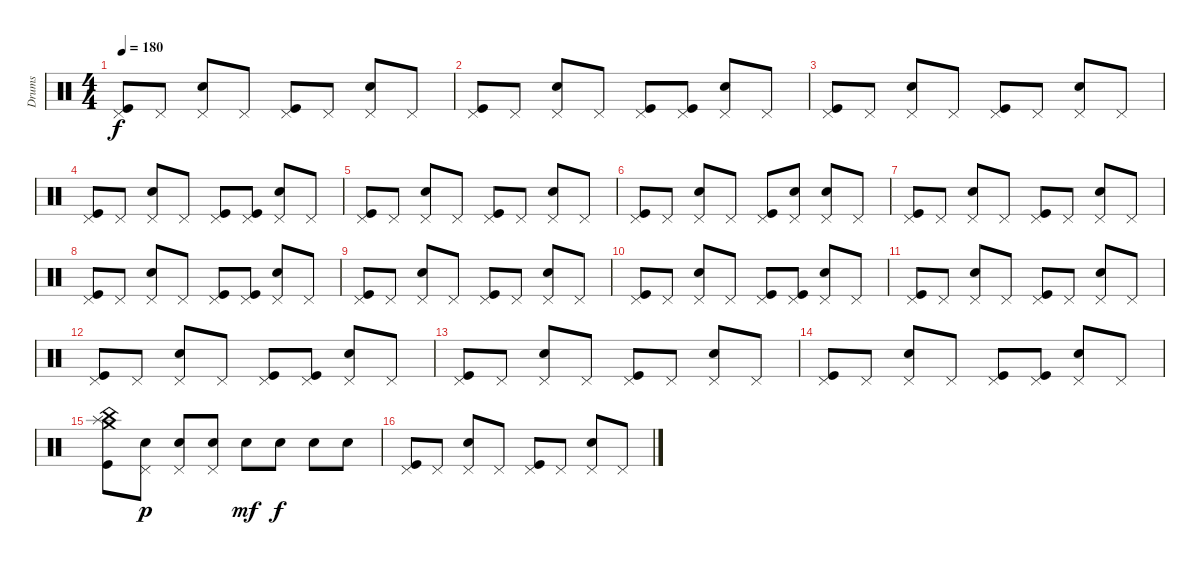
\track ("Drums" "Drums") {instrument percussion}
\staff {score}
\articulation defaults
\ts (4 4)
\tempo 180
\clef neutral
\ks c
("Pedal Hi-Hat (hit)" "Kick (hit)").8{dy f} "Pedal Hi-Hat (hit)".8 ("Pedal Hi-Hat (hit)" "Snare (hit) 2").8 "Pedal Hi-Hat (hit)".8 ("Pedal Hi-Hat (hit)" "Kick (hit)").8 "Pedal Hi-Hat (hit)".8 ("Pedal Hi-Hat (hit)" "Snare (hit) 2").8 "Pedal Hi-Hat (hit)".8 |
("Pedal Hi-Hat (hit)" "Kick (hit)").8 "Pedal Hi-Hat (hit)".8 ("Pedal Hi-Hat (hit)" "Snare (hit) 2").8 "Pedal Hi-Hat (hit)".8 ("Pedal Hi-Hat (hit)" "Kick (hit)").8 ("Pedal Hi-Hat (hit)" "Kick (hit)").8 ("Pedal Hi-Hat (hit)" "Snare (hit) 2").8 "Pedal Hi-Hat (hit)".8 |
("Pedal Hi-Hat (hit)" "Kick (hit)").8 "Pedal Hi-Hat (hit)".8 ("Pedal Hi-Hat (hit)" "Snare (hit) 2").8 "Pedal Hi-Hat (hit)".8 ("Pedal Hi-Hat (hit)" "Kick (hit)").8 "Pedal Hi-Hat (hit)".8 ("Pedal Hi-Hat (hit)" "Snare (hit) 2").8 "Pedal Hi-Hat (hit)".8 |
("Pedal Hi-Hat (hit)" "Kick (hit)").8 "Pedal Hi-Hat (hit)".8 ("Pedal Hi-Hat (hit)" "Snare (hit) 2").8 "Pedal Hi-Hat (hit)".8 ("Pedal Hi-Hat (hit)" "Kick (hit)").8 ("Pedal Hi-Hat (hit)" "Kick (hit)").8 ("Pedal Hi-Hat (hit)" "Snare (hit) 2").8 "Pedal Hi-Hat (hit)".8 |
("Pedal Hi-Hat (hit)" "Kick (hit)").8 "Pedal Hi-Hat (hit)".8 ("Pedal Hi-Hat (hit)" "Snare (hit) 2").8 "Pedal Hi-Hat (hit)".8 ("Pedal Hi-Hat (hit)" "Kick (hit)").8 "Pedal Hi-Hat (hit)".8 ("Pedal Hi-Hat (hit)" "Snare (hit) 2").8 "Pedal Hi-Hat (hit)".8 |
("Pedal Hi-Hat (hit)" "Kick (hit)").8 "Pedal Hi-Hat (hit)".8 ("Pedal Hi-Hat (hit)" "Snare (hit) 2").8 "Pedal Hi-Hat (hit)".8 ("Pedal Hi-Hat (hit)" "Kick (hit)").8 ("Pedal Hi-Hat (hit)" "Snare (hit) 2").8 ("Pedal Hi-Hat (hit)" "Snare (hit) 2").8 "Pedal Hi-Hat (hit)".8 |
("Pedal Hi-Hat (hit)" "Kick (hit)").8 "Pedal Hi-Hat (hit)".8 ("Pedal Hi-Hat (hit)" "Snare (hit) 2").8 "Pedal Hi-Hat (hit)".8 ("Pedal Hi-Hat (hit)" "Kick (hit)").8 "Pedal Hi-Hat (hit)".8 ("Pedal Hi-Hat (hit)" "Snare (hit) 2").8 "Pedal Hi-Hat (hit)".8 |
("Pedal Hi-Hat (hit)" "Kick (hit)").8 "Pedal Hi-Hat (hit)".8 ("Pedal Hi-Hat (hit)" "Snare (hit) 2").8 "Pedal Hi-Hat (hit)".8 ("Pedal Hi-Hat (hit)" "Kick (hit)").8 ("Pedal Hi-Hat (hit)" "Kick (hit)").8 ("Pedal Hi-Hat (hit)" "Snare (hit) 2").8 "Pedal Hi-Hat (hit)".8 |
("Pedal Hi-Hat (hit)" "Kick (hit)").8 "Pedal Hi-Hat (hit)".8 ("Pedal Hi-Hat (hit)" "Snare (hit) 2").8 "Pedal Hi-Hat (hit)".8 ("Pedal Hi-Hat (hit)" "Kick (hit)").8 "Pedal Hi-Hat (hit)".8 ("Pedal Hi-Hat (hit)" "Snare (hit) 2").8 "Pedal Hi-Hat (hit)".8 |
("Pedal Hi-Hat (hit)" "Kick (hit)").8 "Pedal Hi-Hat (hit)".8 ("Pedal Hi-Hat (hit)" "Snare (hit) 2").8 "Pedal Hi-Hat (hit)".8 ("Pedal Hi-Hat (hit)" "Kick (hit)").8 ("Pedal Hi-Hat (hit)" "Kick (hit)").8 ("Pedal Hi-Hat (hit)" "Snare (hit) 2").8 "Pedal Hi-Hat (hit)".8 |
("Pedal Hi-Hat (hit)" "Kick (hit)").8 "Pedal Hi-Hat (hit)".8 ("Pedal Hi-Hat (hit)" "Snare (hit) 2").8 "Pedal Hi-Hat (hit)".8 ("Pedal Hi-Hat (hit)" "Kick (hit)").8 "Pedal Hi-Hat (hit)".8 ("Pedal Hi-Hat (hit)" "Snare (hit) 2").8 "Pedal Hi-Hat (hit)".8 |
("Pedal Hi-Hat (hit)" "Kick (hit)").8 "Pedal Hi-Hat (hit)".8 ("Pedal Hi-Hat (hit)" "Snare (hit) 2").8 "Pedal Hi-Hat (hit)".8 ("Pedal Hi-Hat (hit)" "Kick (hit)").8 ("Pedal Hi-Hat (hit)" "Kick (hit)").8 ("Pedal Hi-Hat (hit)" "Snare (hit) 2").8 "Pedal Hi-Hat (hit)".8 |
("Pedal Hi-Hat (hit)" "Kick (hit)").8 "Pedal Hi-Hat (hit)".8 ("Pedal Hi-Hat (hit)" "Snare (hit) 2").8 "Pedal Hi-Hat (hit)".8 ("Pedal Hi-Hat (hit)" "Kick (hit)").8 "Pedal Hi-Hat (hit)".8 ("Pedal Hi-Hat (hit)" "Snare (hit) 2").8 "Pedal Hi-Hat (hit)".8 |
("Pedal Hi-Hat (hit)" "Kick (hit)").8 "Pedal Hi-Hat (hit)".8 ("Pedal Hi-Hat (hit)" "Snare (hit) 2").8 "Pedal Hi-Hat (hit)".8 ("Pedal Hi-Hat (hit)" "Kick (hit)").8 ("Pedal Hi-Hat (hit)" "Kick (hit)").8 ("Pedal Hi-Hat (hit)" "Snare (hit) 2").8 "Pedal Hi-Hat (hit)".8 |
("Crash medium (hit)" "Splash (hit)" "China (hit)" "Kick (hit)").8 ("Pedal Hi-Hat (hit)" "Snare (hit) 2").8{dy p} ("Pedal Hi-Hat (hit)" "Snare (hit) 2").8 ("Pedal Hi-Hat (hit)" "Snare (hit) 2").8 "Snare (hit) 2".8{dy mf} "Snare (hit) 2".8{dy f} "Snare (hit) 2".8 "Snare (hit) 2".8 |
("Pedal Hi-Hat (hit)" "Kick (hit)").8 "Pedal Hi-Hat (hit)".8 ("Pedal Hi-Hat (hit)" "Snare (hit) 2").8 "Pedal Hi-Hat (hit)".8 ("Pedal Hi-Hat (hit)" "Kick (hit)").8 "Pedal Hi-Hat (hit)".8 ("Pedal Hi-Hat (hit)" "Snare (hit) 2").8 "Pedal Hi-Hat (hit)".8
